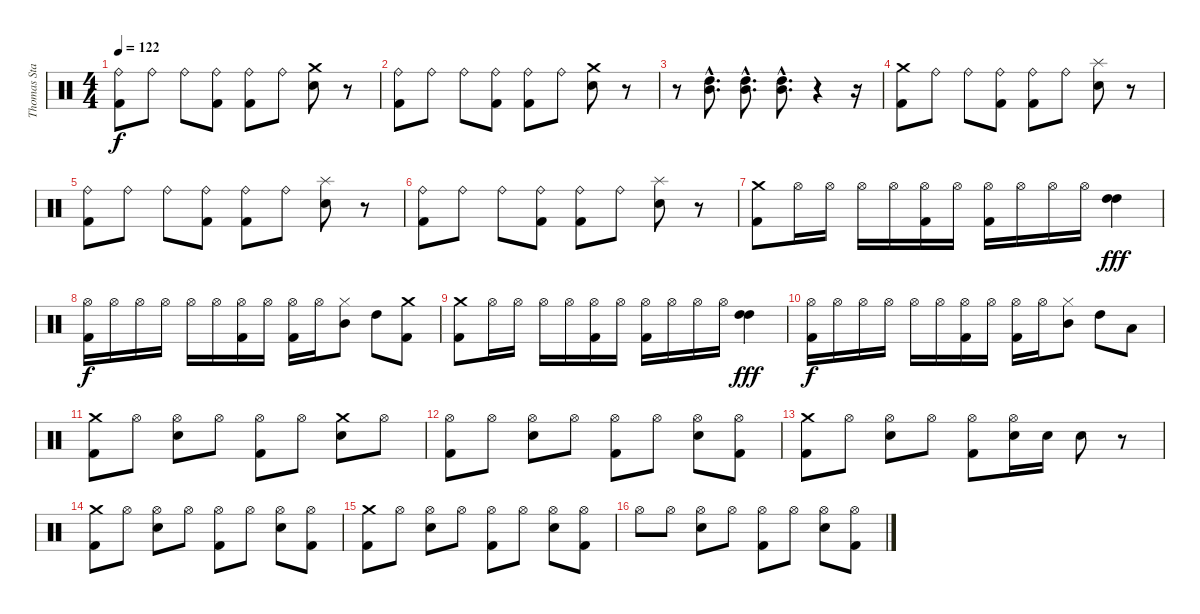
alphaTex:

\track ("Thomas Stauch" "Thomas Sta") {instrument percussion}
\staff {score}
\articulation defaults
\ts (4 4)
\tempo 122
\clef neutral
\ks c
("Ride (bell)" "Kick (hit) 2").8{dy f} "Ride (bell)".8 "Ride (bell)".8 ("Ride (bell)" "Kick (hit) 2").8 ("Ride (bell)" "Kick (hit) 2").8 "Ride (bell)".8 ("Crash medium (hit)" "Electric Snare (hit)").8 r.8 |
("Ride (bell)" "Kick (hit) 2").8 "Ride (bell)".8 "Ride (bell)".8 ("Ride (bell)" "Kick (hit) 2").8 ("Ride (bell)" "Kick (hit) 2").8 "Ride (bell)".8 ("Crash medium (hit)" "Electric Snare (hit)").8 r.8 |
r.8 ("Mid Tom (hit)"{hac} "High Tom (hit)"{hac}).8{d} ("Mid Tom (hit)"{hac} "High Tom (hit)"{hac}).8{d} ("Mid Tom (hit)"{hac} "High Tom (hit)"{hac}).8{d} r.4 r.16 |
("Crash medium (hit)" "Kick (hit) 2").8 "Ride (bell)".8 "Ride (bell)".8 ("Ride (bell)" "Kick (hit) 2").8 ("Ride (bell)" "Kick (hit) 2").8 "Ride (bell)".8 ("Splash (hit)" "Electric Snare (hit)").8 r.8 |
("Ride (bell)" "Kick (hit) 2").8 "Ride (bell)".8 "Ride (bell)".8 ("Ride (bell)" "Kick (hit) 2").8 ("Ride (bell)" "Kick (hit) 2").8 "Ride (bell)".8 ("Splash (hit)" "Electric Snare (hit)").8 r.8 |
("Ride (bell)" "Kick (hit) 2").8 "Ride (bell)".8 "Ride (bell)".8 ("Ride (bell)" "Kick (hit) 2").8 ("Ride (bell)" "Kick (hit) 2").8 "Ride (bell)".8 ("Splash (hit)" "Electric Snare (hit)").8 r.8 |
("Crash medium (hit)" "Kick (hit) 2").8 "Hi-Hat (open)".16 "Hi-Hat (open)".16 "Hi-Hat (open)".16 "Hi-Hat (open)".16 ("Hi-Hat (open)" "Kick (hit) 2").16 "Hi-Hat (open)".16 ("Hi-Hat (open)" "Kick (hit) 2").16 "Hi-Hat (open)".16 "Hi-Hat (open)".16 "Hi-Hat (open)".16 ("High Tom (hit)" "High Tom (hit)").4{dy fff} |
("Hi-Hat (open)" "Kick (hit) 2").16{dy f} "Hi-Hat (open)".16 "Hi-Hat (open)".16 "Hi-Hat (open)".16 "Hi-Hat (open)".16 "Hi-Hat (open)".16 ("Hi-Hat (open)" "Kick (hit) 2").16 "Hi-Hat (open)".16 ("Hi-Hat (open)" "Kick (hit) 2").16 "Hi-Hat (open)".16 ("Hi-Hat (closed)" "Mid Tom (hit)").8 "High Tom (hit)".8 ("Crash medium (hit)" "Kick (hit) 2").8 |
("Crash medium (hit)" "Kick (hit) 2").8 "Hi-Hat (open)".16 "Hi-Hat (open)".16 "Hi-Hat (open)".16 "Hi-Hat (open)".16 ("Hi-Hat (open)" "Kick (hit) 2").16 "Hi-Hat (open)".16 ("Hi-Hat (open)" "Kick (hit) 2").16 "Hi-Hat (open)".16 "Hi-Hat (open)".16 "Hi-Hat (open)".16 ("High Tom (hit)" "High Tom (hit)").4{dy fff} |
("Hi-Hat (open)" "Kick (hit) 2").16{dy f} "Hi-Hat (open)".16 "Hi-Hat (open)".16 "Hi-Hat (open)".16 "Hi-Hat (open)".16 "Hi-Hat (open)".16 ("Hi-Hat (open)" "Kick (hit) 2").16 "Hi-Hat (open)".16 ("Hi-Hat (open)" "Kick (hit) 2").16 "Hi-Hat (open)".16 ("Hi-Hat (closed)" "Mid Tom (hit)").8 "High Tom (hit)".8 "Low Tom (hit)".8 |
("Crash medium (hit)" "Kick (hit) 2").8 "Hi-Hat (open)".8 ("Hi-Hat (open)" "Electric Snare (hit)").8 "Hi-Hat (open)".8 ("Hi-Hat (open)" "Kick (hit) 2").8 "Hi-Hat (open)".8 ("Crash medium (hit)" "Electric Snare (hit)").8 "Hi-Hat (open)".8 |
("Hi-Hat (open)" "Kick (hit) 2").8 "Hi-Hat (open)".8 ("Hi-Hat (open)" "Electric Snare (hit)").8 "Hi-Hat (open)".8 ("Hi-Hat (open)" "Kick (hit) 2").8 "Hi-Hat (open)".8 ("Hi-Hat (open)" "Electric Snare (hit)").8 ("Hi-Hat (open)" "Kick (hit) 2").8 |
("Crash medium (hit)" "Kick (hit) 2").8 "Hi-Hat (open)".8 ("Hi-Hat (open)" "Electric Snare (hit)").8 "Hi-Hat (open)".8 ("Hi-Hat (open)" "Kick (hit) 2").8 ("Hi-Hat (open)" "Electric Snare (hit)").16 "Electric Snare (hit)".16 "Electric Snare (hit)".8 r.8 |
("Crash medium (hit)" "Kick (hit) 2").8 "Hi-Hat (open)".8 ("Hi-Hat (open)" "Electric Snare (hit)").8 "Hi-Hat (open)".8 ("Hi-Hat (open)" "Kick (hit) 2").8 "Hi-Hat (open)".8 ("Hi-Hat (open)" "Electric Snare (hit)").8 ("Hi-Hat (open)" "Kick (hit) 2").8 |
("Crash medium (hit)" "Kick (hit) 2").8 "Hi-Hat (open)".8 ("Hi-Hat (open)" "Electric Snare (hit)").8 "Hi-Hat (open)".8 ("Hi-Hat (open)" "Kick (hit) 2").8 "Hi-Hat (open)".8 ("Hi-Hat (open)" "Electric Snare (hit)").8 ("Hi-Hat (open)" "Kick (hit) 2").8 |
"Hi-Hat (open)".8 "Hi-Hat (open)".8 ("Hi-Hat (open)" "Electric Snare (hit)").8 "Hi-Hat (open)".8 ("Hi-Hat (open)" "Kick (hit) 2").8 "Hi-Hat (open)".8 ("Hi-Hat (open)" "Electric Snare (hit)").8 ("Hi-Hat (open)" "Kick (hit) 2").8
